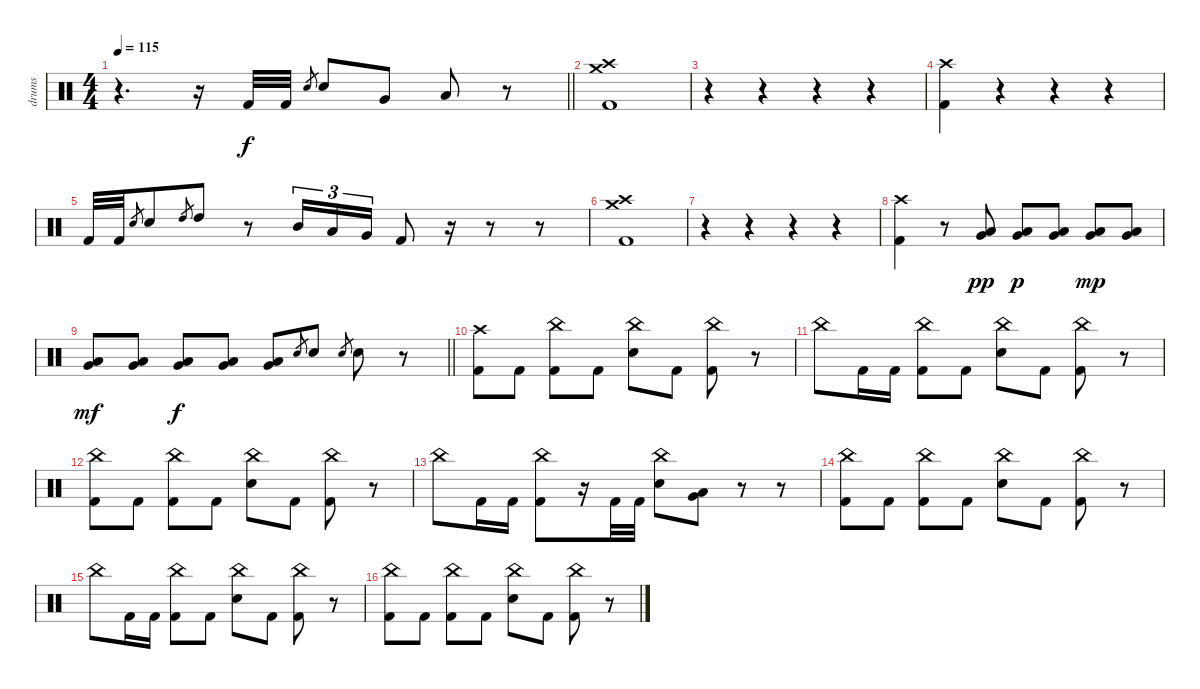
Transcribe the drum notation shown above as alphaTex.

\track ("drums" "drums") {instrument percussion}
\staff {score}
\articulation defaults
\ts (4 4)
\tempo 115
\clef neutral
\barLineRight lightlight
\ks c
r.4{d dy f} r.16 "Kick (hit) 2".32 "Kick (hit) 2".32 "Electric Snare (hit)".8{gr} "Electric Snare (hit)".8 "Very Low Tom (hit)".8 "Low Tom (hit)".8 r.8 |
("Crash medium (hit)" "Crash high (hit)" "Kick (hit) 2").1 |
r.4 r.4 r.4 r.4 |
("Crash high (hit)" "Kick (hit) 2").4 r.4 r.4 r.4 |
"Kick (hit) 2".32 "Kick (hit) 2".32 "Electric Snare (hit)".8{gr} "Electric Snare (hit)".8 "High Tom (hit)".8{gr} "High Tom (hit)".8 r.8 "Mid Tom (hit)".16{tu (3 2)} "Low Tom (hit)".16{tu (3 2)} "Very Low Tom (hit)".16{tu (3 2)} "Kick (hit) 2".8 r.16 r.8 r.8 |
("Crash medium (hit)" "Crash high (hit)" "Kick (hit) 2").1 |
r.4 r.4 r.4 r.4 |
("Crash high (hit)" "Kick (hit) 2").4 r.8 ("Very Low Tom (hit)" "Low Floor Tom (hit)").8{dy pp} ("Very Low Tom (hit)" "Low Floor Tom (hit)").8{dy p} ("Very Low Tom (hit)" "Low Floor Tom (hit)").8 ("Very Low Tom (hit)" "Low Floor Tom (hit)").8{dy mp} ("Very Low Tom (hit)" "Low Floor Tom (hit)").8 |
\barLineRight lightlight
("Very Low Tom (hit)" "Low Floor Tom (hit)").8{dy mf} ("Very Low Tom (hit)" "Low Floor Tom (hit)").8 ("Very Low Tom (hit)" "Low Floor Tom (hit)").8{dy f} ("Very Low Tom (hit)" "Low Floor Tom (hit)").8 ("Very Low Tom (hit)" "Low Floor Tom (hit)").8 "Electric Snare (hit)".8{gr} "Electric Snare (hit)".8 "Electric Snare (hit)".8{gr} "Electric Snare (hit)".8 r.8 |
("Crash high (hit)" "Kick (hit) 2").8 "Kick (hit) 2".8 ("China (hit)" "Kick (hit) 2").8 "Kick (hit) 2".8 ("China (hit)" "Electric Snare (hit)").8 "Kick (hit) 2".8 ("China (hit)" "Kick (hit) 2").8 r.8 |
"China (hit)".8 "Kick (hit) 2".16 "Kick (hit) 2".16 ("China (hit)" "Kick (hit) 2").8 "Kick (hit) 2".8 ("China (hit)" "Electric Snare (hit)").8 "Kick (hit) 2".8 ("China (hit)" "Kick (hit) 2").8 r.8 |
("China (hit)" "Kick (hit) 2").8 "Kick (hit) 2".8 ("China (hit)" "Kick (hit) 2").8 "Kick (hit) 2".8 ("China (hit)" "Electric Snare (hit)").8 "Kick (hit) 2".8 ("China (hit)" "Kick (hit) 2").8 r.8 |
"China (hit)".8 "Kick (hit) 2".16 "Kick (hit) 2".16 ("China (hit)" "Kick (hit) 2").8 r.16 "Kick (hit) 2".32 "Kick (hit) 2".32 ("China (hit)" "Electric Snare (hit)").8 ("Low Floor Tom (hit)" "Very Low Tom (hit)").8 r.8 r.8 |
("China (hit)" "Kick (hit) 2").8 "Kick (hit) 2".8 ("China (hit)" "Kick (hit) 2").8 "Kick (hit) 2".8 ("China (hit)" "Electric Snare (hit)").8 "Kick (hit) 2".8 ("China (hit)" "Kick (hit) 2").8 r.8 |
"China (hit)".8 "Kick (hit) 2".16 "Kick (hit) 2".16 ("China (hit)" "Kick (hit) 2").8 "Kick (hit) 2".8 ("China (hit)" "Electric Snare (hit)").8 "Kick (hit) 2".8 ("China (hit)" "Kick (hit) 2").8 r.8 |
("China (hit)" "Kick (hit) 2").8 "Kick (hit) 2".8 ("China (hit)" "Kick (hit) 2").8 "Kick (hit) 2".8 ("China (hit)" "Electric Snare (hit)").8 "Kick (hit) 2".8 ("China (hit)" "Kick (hit) 2").8 r.8
